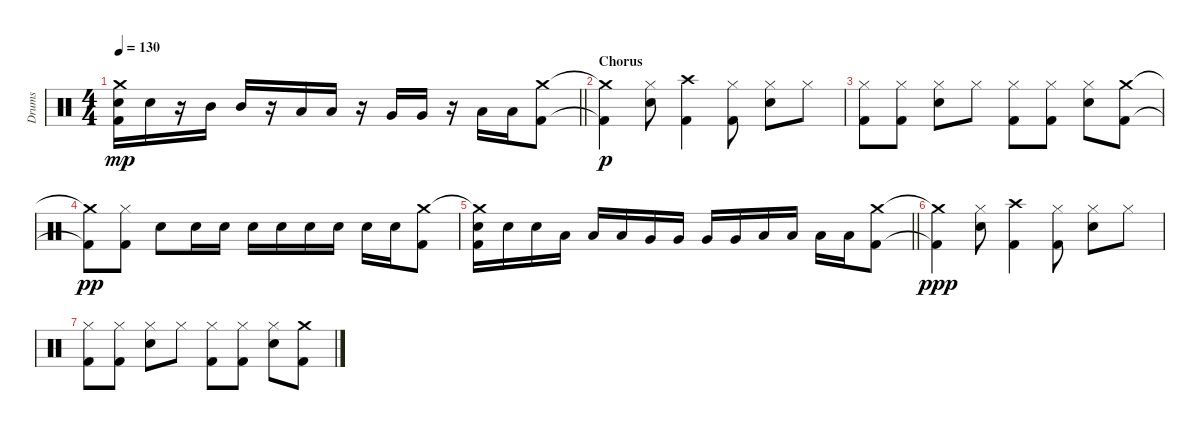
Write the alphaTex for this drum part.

\track ("Drums" "Drums") {instrument percussion}
\staff {score}
\articulation defaults
\ts (4 4)
\tempo 130
\clef neutral
\barLineRight lightlight
\ks c
("Crash medium (hit)"{t} "Electric Snare (hit)" "Kick (hit) 2").16{dy mp} "Electric Snare (hit)".16 r.16 "Mid Tom (hit)".16 "Mid Tom (hit)".16 r.16 "Low Tom (hit)".16 "Low Tom (hit)".16 r.16 "Very Low Tom (hit)".16 "Very Low Tom (hit)".16 r.16 "Low Floor Tom (hit)".16 "Low Floor Tom (hit)".16 ("Crash medium (hit)" "Kick (hit) 2").8 |
\section ("" "Chorus")
("Crash medium (hit)"{t} "Kick (hit) 2"{t}).4{dy p} ("Hi-Hat (closed)" "Electric Snare (hit)").8 ("Crash high (hit)" "Kick (hit) 2").4 ("Hi-Hat (closed)" "Kick (hit) 2").8 ("Hi-Hat (closed)" "Electric Snare (hit)").8 "Hi-Hat (closed)".8 |
("Hi-Hat (closed)" "Kick (hit) 2").8 ("Hi-Hat (closed)" "Kick (hit) 2").8 ("Hi-Hat (closed)" "Electric Snare (hit)").8 "Hi-Hat (closed)".8 ("Hi-Hat (closed)" "Kick (hit) 2").8 ("Hi-Hat (closed)" "Kick (hit) 2").8 ("Hi-Hat (closed)" "Electric Snare (hit)").8 ("Crash medium (hit)" "Kick (hit) 2").8 |
("Crash medium (hit)"{t} "Kick (hit) 2"{t}).8{dy pp} ("Hi-Hat (closed)" "Kick (hit) 2").8 "Electric Snare (hit)".8 "Electric Snare (hit)".16 "Electric Snare (hit)".16 "Electric Snare (hit)".16 "Electric Snare (hit)".16 "Electric Snare (hit)".16 "Electric Snare (hit)".16 "Electric Snare (hit)".16 "Electric Snare (hit)".16 ("Crash medium (hit)" "Kick (hit) 2").8 |
\barLineRight lightlight
("Crash medium (hit)"{t} "Electric Snare (hit)" "Kick (hit) 2").16 "Electric Snare (hit)".16 "Electric Snare (hit)".16 "Low Tom (hit)".16 "Low Tom (hit)".16 "Low Tom (hit)".16 "Very Low Tom (hit)".16 "Very Low Tom (hit)".16 "Very Low Tom (hit)".16 "Very Low Tom (hit)".16 "Low Floor Tom (hit)".16 "Low Floor Tom (hit)".16 "Low Floor Tom (hit)".16 "Low Floor Tom (hit)".16 ("Crash medium (hit)" "Kick (hit) 2").8 |
("Crash medium (hit)"{t} "Kick (hit) 2"{t}).4{dy ppp} ("Hi-Hat (closed)" "Electric Snare (hit)").8 ("Crash high (hit)" "Kick (hit) 2").4 ("Hi-Hat (closed)" "Kick (hit) 2").8 ("Hi-Hat (closed)" "Electric Snare (hit)").8 "Hi-Hat (closed)".8 |
("Hi-Hat (closed)" "Kick (hit) 2").8 ("Hi-Hat (closed)" "Kick (hit) 2").8 ("Hi-Hat (closed)" "Electric Snare (hit)").8 "Hi-Hat (closed)".8 ("Hi-Hat (closed)" "Kick (hit) 2").8 ("Hi-Hat (closed)" "Kick (hit) 2").8 ("Hi-Hat (closed)" "Electric Snare (hit)").8 ("Crash medium (hit)" "Kick (hit) 2").8
